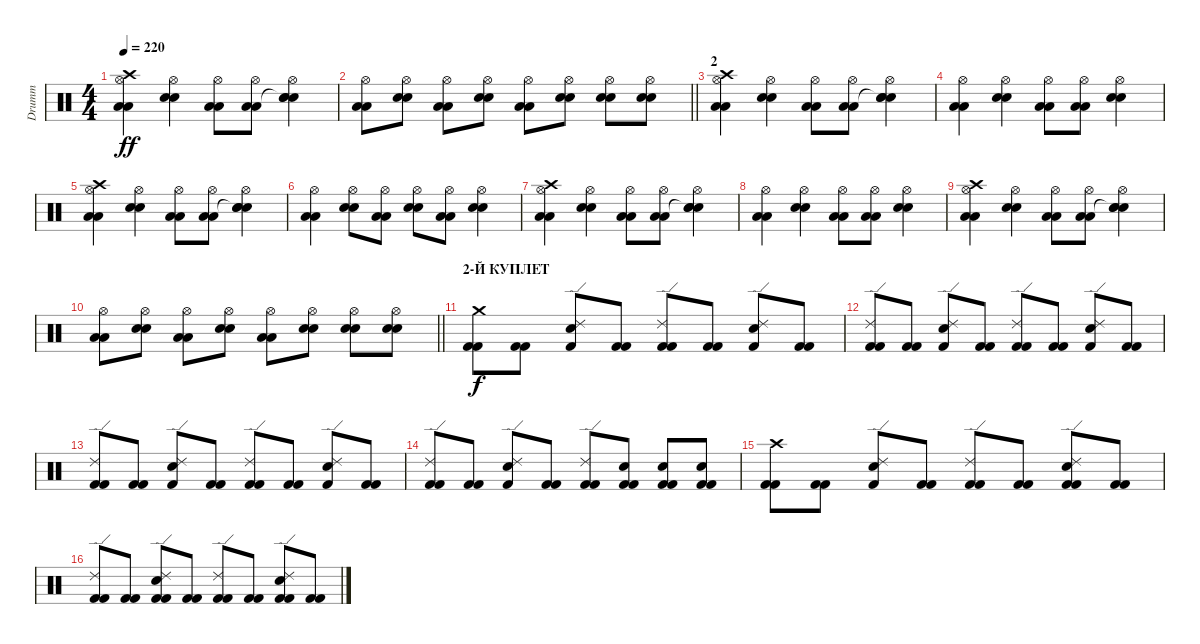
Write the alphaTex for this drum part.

\track ("Drumm" "Drumm") {instrument percussion}
\staff {score}
\articulation defaults
\ts (4 4)
\tempo 220
\clef neutral
\ks c
("Hi-Hat (open)" "Crash high (hit)" "Low Floor Tom (hit)" "Low Floor Tom (hit)").4{dy ff} ("Hi-Hat (open)" "Electric Snare (hit)" "Electric Snare (hit)").4 ("Hi-Hat (open)" "Low Floor Tom (hit)" "Low Floor Tom (hit)").8 ("Hi-Hat (open)" "Low Floor Tom (hit)" "Low Floor Tom (hit)").8 ("Hi-Hat (open)" "Snare (hit)"{t} "Electric Snare (hit)" "Electric Snare (hit)").4 |
\barLineRight lightlight
("Hi-Hat (open)" "Low Floor Tom (hit)" "Low Floor Tom (hit)").8 ("Hi-Hat (open)" "Electric Snare (hit)" "Electric Snare (hit)").8 ("Hi-Hat (open)" "Low Floor Tom (hit)" "Low Floor Tom (hit)").8 ("Hi-Hat (open)" "Electric Snare (hit)" "Electric Snare (hit)").8 ("Hi-Hat (open)" "Low Floor Tom (hit)" "Low Floor Tom (hit)").8 ("Hi-Hat (open)" "Electric Snare (hit)" "Electric Snare (hit)").8 ("Hi-Hat (open)" "Electric Snare (hit)" "Electric Snare (hit)").8 ("Hi-Hat (open)" "Electric Snare (hit)" "Electric Snare (hit)").8 |
\section ("" "2")
("Hi-Hat (open)" "Crash high (hit)" "Low Floor Tom (hit)" "Low Floor Tom (hit)").4 ("Hi-Hat (open)" "Electric Snare (hit)" "Electric Snare (hit)").4 ("Hi-Hat (open)" "Low Floor Tom (hit)" "Low Floor Tom (hit)").8 ("Hi-Hat (open)" "Low Floor Tom (hit)" "Low Floor Tom (hit)").8 ("Hi-Hat (open)" "Snare (hit)"{t} "Electric Snare (hit)" "Electric Snare (hit)").4 |
("Hi-Hat (open)" "Low Floor Tom (hit)" "Low Floor Tom (hit)").4 ("Hi-Hat (open)" "Electric Snare (hit)" "Electric Snare (hit)").4 ("Hi-Hat (open)" "Low Floor Tom (hit)" "Low Floor Tom (hit)").8 ("Hi-Hat (open)" "Low Floor Tom (hit)" "Low Floor Tom (hit)").8 ("Hi-Hat (open)" "Electric Snare (hit)" "Electric Snare (hit)").4 |
("Hi-Hat (open)" "Crash high (hit)" "Low Floor Tom (hit)" "Low Floor Tom (hit)").4 ("Hi-Hat (open)" "Electric Snare (hit)" "Electric Snare (hit)").4 ("Hi-Hat (open)" "Low Floor Tom (hit)" "Low Floor Tom (hit)").8 ("Hi-Hat (open)" "Low Floor Tom (hit)" "Low Floor Tom (hit)").8 ("Hi-Hat (open)" "Snare (hit)"{t} "Electric Snare (hit)" "Electric Snare (hit)").4 |
("Hi-Hat (open)" "Low Floor Tom (hit)" "Low Floor Tom (hit)").4 ("Hi-Hat (open)" "Electric Snare (hit)" "Electric Snare (hit)").8 ("Hi-Hat (open)" "Low Floor Tom (hit)" "Low Floor Tom (hit)").8 ("Hi-Hat (open)" "Electric Snare (hit)" "Electric Snare (hit)").8 ("Hi-Hat (open)" "Low Floor Tom (hit)" "Low Floor Tom (hit)").8 ("Hi-Hat (open)" "Electric Snare (hit)" "Electric Snare (hit)").4 |
("Hi-Hat (open)" "Crash high (hit)" "Low Floor Tom (hit)" "Low Floor Tom (hit)").4 ("Hi-Hat (open)" "Electric Snare (hit)" "Electric Snare (hit)").4 ("Hi-Hat (open)" "Low Floor Tom (hit)" "Low Floor Tom (hit)").8 ("Hi-Hat (open)" "Low Floor Tom (hit)" "Low Floor Tom (hit)").8 ("Hi-Hat (open)" "Snare (hit)"{t} "Electric Snare (hit)" "Electric Snare (hit)").4 |
("Hi-Hat (open)" "Low Floor Tom (hit)" "Low Floor Tom (hit)").4 ("Hi-Hat (open)" "Electric Snare (hit)" "Electric Snare (hit)").4 ("Hi-Hat (open)" "Low Floor Tom (hit)" "Low Floor Tom (hit)").8 ("Hi-Hat (open)" "Low Floor Tom (hit)" "Low Floor Tom (hit)").8 ("Hi-Hat (open)" "Electric Snare (hit)" "Electric Snare (hit)").4 |
("Hi-Hat (open)" "Crash high (hit)" "Low Floor Tom (hit)" "Low Floor Tom (hit)").4 ("Hi-Hat (open)" "Electric Snare (hit)" "Electric Snare (hit)").4 ("Hi-Hat (open)" "Low Floor Tom (hit)" "Low Floor Tom (hit)").8 ("Hi-Hat (open)" "Low Floor Tom (hit)" "Low Floor Tom (hit)").8 ("Hi-Hat (open)" "Snare (hit)"{t} "Electric Snare (hit)" "Electric Snare (hit)").4 |
\barLineRight lightlight
("Hi-Hat (open)" "Low Floor Tom (hit)" "Low Floor Tom (hit)").8 ("Hi-Hat (open)" "Electric Snare (hit)" "Electric Snare (hit)").8 ("Hi-Hat (open)" "Low Floor Tom (hit)" "Low Floor Tom (hit)").8 ("Hi-Hat (open)" "Electric Snare (hit)" "Electric Snare (hit)").8 ("Hi-Hat (open)" "Low Floor Tom (hit)" "Low Floor Tom (hit)").8 ("Hi-Hat (open)" "Electric Snare (hit)" "Electric Snare (hit)").8 ("Hi-Hat (open)" "Electric Snare (hit)" "Electric Snare (hit)").8 ("Hi-Hat (open)" "Electric Snare (hit)" "Electric Snare (hit)").8 |
\section ("" "2-Й КУПЛЕТ")
("Crash medium (hit)" "Kick (hit) 2" "Kick (hit) 2").8{dy f} ("Kick (hit) 2" "Kick (hit) 2").8 ("Ride (edge) 2" "Snare (hit) 2" "Kick (hit) 2").8 ("Kick (hit) 2" "Kick (hit) 2").8 ("Ride (edge) 2" "Kick (hit) 2" "Kick (hit) 2").8 ("Kick (hit) 2" "Kick (hit) 2").8 ("Ride (edge) 2" "Snare (hit) 2" "Kick (hit) 2").8 ("Kick (hit) 2" "Kick (hit) 2").8 |
("Ride (edge) 2" "Kick (hit) 2" "Kick (hit) 2").8 ("Kick (hit) 2" "Kick (hit) 2").8 ("Ride (edge) 2" "Snare (hit) 2" "Kick (hit) 2").8 ("Kick (hit) 2" "Kick (hit) 2").8 ("Ride (edge) 2" "Kick (hit) 2" "Kick (hit) 2").8 ("Kick (hit) 2" "Kick (hit) 2").8 ("Ride (edge) 2" "Snare (hit) 2" "Kick (hit) 2").8 ("Kick (hit) 2" "Kick (hit) 2").8 |
("Ride (edge) 2" "Kick (hit) 2" "Kick (hit) 2").8 ("Kick (hit) 2" "Kick (hit) 2").8 ("Ride (edge) 2" "Snare (hit) 2" "Kick (hit) 2").8 ("Kick (hit) 2" "Kick (hit) 2").8 ("Ride (edge) 2" "Kick (hit) 2" "Kick (hit) 2").8 ("Kick (hit) 2" "Kick (hit) 2").8 ("Ride (edge) 2" "Snare (hit) 2" "Kick (hit) 2").8 ("Kick (hit) 2" "Kick (hit) 2").8 |
("Ride (edge) 2" "Kick (hit) 2" "Kick (hit) 2").8 ("Kick (hit) 2" "Kick (hit) 2").8 ("Ride (edge) 2" "Snare (hit) 2" "Kick (hit) 2").8 ("Kick (hit) 2" "Kick (hit) 2").8 ("Ride (edge) 2" "Kick (hit) 2" "Kick (hit) 2").8 ("Snare (hit) 2" "Kick (hit) 2" "Kick (hit) 2").8 ("Snare (hit) 2" "Kick (hit) 2" "Kick (hit) 2").8 ("Snare (hit) 2" "Kick (hit) 2" "Kick (hit) 2").8 |
("Crash high (hit)" "Kick (hit) 2" "Kick (hit) 2").8 ("Kick (hit) 2" "Kick (hit) 2").8 ("Ride (edge) 2" "Snare (hit) 2" "Kick (hit) 2").8 ("Kick (hit) 2" "Kick (hit) 2").8 ("Ride (edge) 2" "Kick (hit) 2" "Kick (hit) 2").8 ("Kick (hit) 2" "Kick (hit) 2").8 ("Ride (edge) 2" "Kick (hit) 2" "Snare (hit) 2" "Kick (hit) 2").8 ("Kick (hit) 2" "Kick (hit) 2").8 |
("Ride (edge) 2" "Kick (hit) 2" "Kick (hit) 2").8 ("Kick (hit) 2" "Kick (hit) 2").8 ("Ride (edge) 2" "Kick (hit) 2" "Snare (hit) 2" "Kick (hit) 2").8 ("Kick (hit) 2" "Kick (hit) 2").8 ("Ride (edge) 2" "Kick (hit) 2" "Kick (hit) 2").8 ("Kick (hit) 2" "Kick (hit) 2").8 ("Ride (edge) 2" "Kick (hit) 2" "Snare (hit) 2" "Kick (hit) 2").8 ("Kick (hit) 2" "Kick (hit) 2").8
